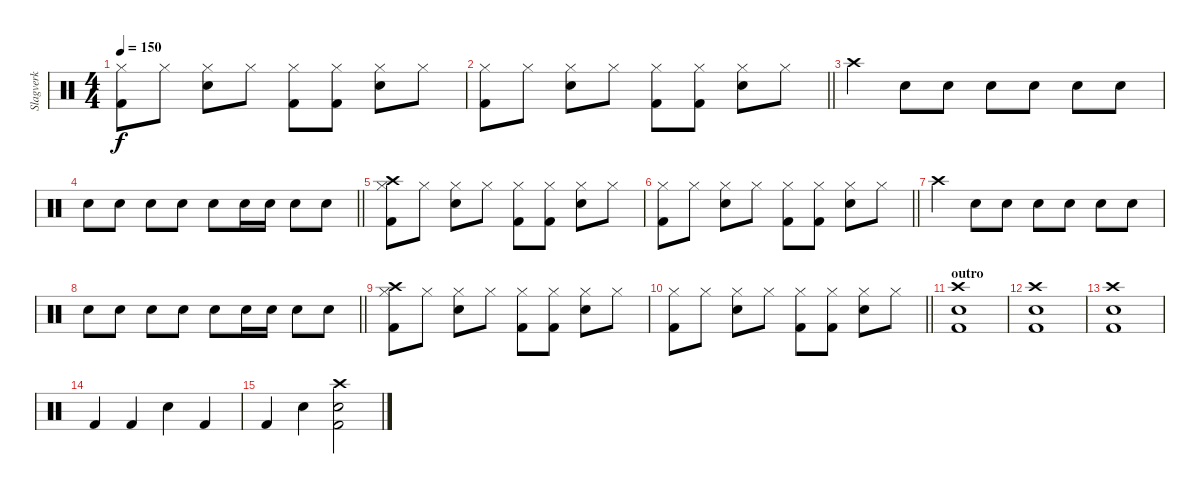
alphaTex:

\track ("Slagverk" "Slagverk") {instrument percussion}
\staff {score}
\articulation defaults
\ts (4 4)
\tempo 150
\clef neutral
\ks c
("Hi-Hat (closed)" "Kick (hit) 2").8{dy f} "Hi-Hat (closed)".8 ("Hi-Hat (closed)" "Snare (hit) 2").8 "Hi-Hat (closed)".8 ("Hi-Hat (closed)" "Kick (hit) 2").8 ("Hi-Hat (closed)" "Kick (hit) 2").8 ("Hi-Hat (closed)" "Snare (hit) 2").8 "Hi-Hat (closed)".8 |
\barLineRight lightlight
("Hi-Hat (closed)" "Kick (hit) 2").8 "Hi-Hat (closed)".8 ("Hi-Hat (closed)" "Snare (hit) 2").8 "Hi-Hat (closed)".8 ("Hi-Hat (closed)" "Kick (hit) 2").8 ("Hi-Hat (closed)" "Kick (hit) 2").8 ("Hi-Hat (closed)" "Snare (hit) 2").8 "Hi-Hat (closed)".8 |
"Crash high (hit)".4 "Snare (hit) 2".8 "Snare (hit) 2".8 "Snare (hit) 2".8 "Snare (hit) 2".8 "Snare (hit) 2".8 "Snare (hit) 2".8 |
\barLineRight lightlight "Snare (hit) 2".8 "Snare (hit) 2".8 "Snare (hit) 2".8 "Snare (hit) 2".8 "Snare (hit) 2".8 "Snare (hit) 2".16 "Snare (hit) 2".16 "Snare (hit) 2".8 "Snare (hit) 2".8
|
("Hi-Hat (closed)" "Kick (hit) 2" "Crash high (hit)").8 "Hi-Hat (closed)".8 ("Hi-Hat (closed)" "Snare (hit) 2").8 "Hi-Hat (closed)".8 ("Hi-Hat (closed)" "Kick (hit) 2").8 ("Hi-Hat (closed)" "Kick (hit) 2").8 ("Hi-Hat (closed)" "Snare (hit) 2").8 "Hi-Hat (closed)".8 |
\barLineRight lightlight
("Hi-Hat (closed)" "Kick (hit) 2").8 "Hi-Hat (closed)".8 ("Hi-Hat (closed)" "Snare (hit) 2").8 "Hi-Hat (closed)".8 ("Hi-Hat (closed)" "Kick (hit) 2").8 ("Hi-Hat (closed)" "Kick (hit) 2").8 ("Hi-Hat (closed)" "Snare (hit) 2").8 "Hi-Hat (closed)".8 |
"Crash high (hit)".4 "Snare (hit) 2".8 "Snare (hit) 2".8 "Snare (hit) 2".8 "Snare (hit) 2".8 "Snare (hit) 2".8 "Snare (hit) 2".8 |
\barLineRight lightlight "Snare (hit) 2".8 "Snare (hit) 2".8 "Snare (hit) 2".8 "Snare (hit) 2".8 "Snare (hit) 2".8 "Snare (hit) 2".16 "Snare (hit) 2".16 "Snare (hit) 2".8 "Snare (hit) 2".8
|
("Hi-Hat (closed)" "Kick (hit) 2" "Crash high (hit)").8 "Hi-Hat (closed)".8 ("Hi-Hat (closed)" "Snare (hit) 2").8 "Hi-Hat (closed)".8 ("Hi-Hat (closed)" "Kick (hit) 2").8 ("Hi-Hat (closed)" "Kick (hit) 2").8 ("Hi-Hat (closed)" "Snare (hit) 2").8 "Hi-Hat (closed)".8 |
\barLineRight lightlight
("Hi-Hat (closed)" "Kick (hit) 2").8 "Hi-Hat (closed)".8 ("Hi-Hat (closed)" "Snare (hit) 2").8 "Hi-Hat (closed)".8 ("Hi-Hat (closed)" "Kick (hit) 2").8 ("Hi-Hat (closed)" "Kick (hit) 2").8 ("Hi-Hat (closed)" "Snare (hit) 2").8 "Hi-Hat (closed)".8 |
\section ("" "outro")
("Kick (hit) 2" "Snare (hit) 2" "Crash high (hit)").1 |
("Kick (hit) 2" "Snare (hit) 2" "Crash high (hit)").1 |
("Kick (hit) 2" "Snare (hit) 2" "Crash high (hit)").1 |
"Kick (hit) 2".4 "Kick (hit) 2".4 "Snare (hit) 2".4 "Kick (hit) 2".4 |
"Kick (hit) 2".4 "Snare (hit) 2".4 ("Crash high (hit)" "Kick (hit) 2" "Snare (hit) 2").2
